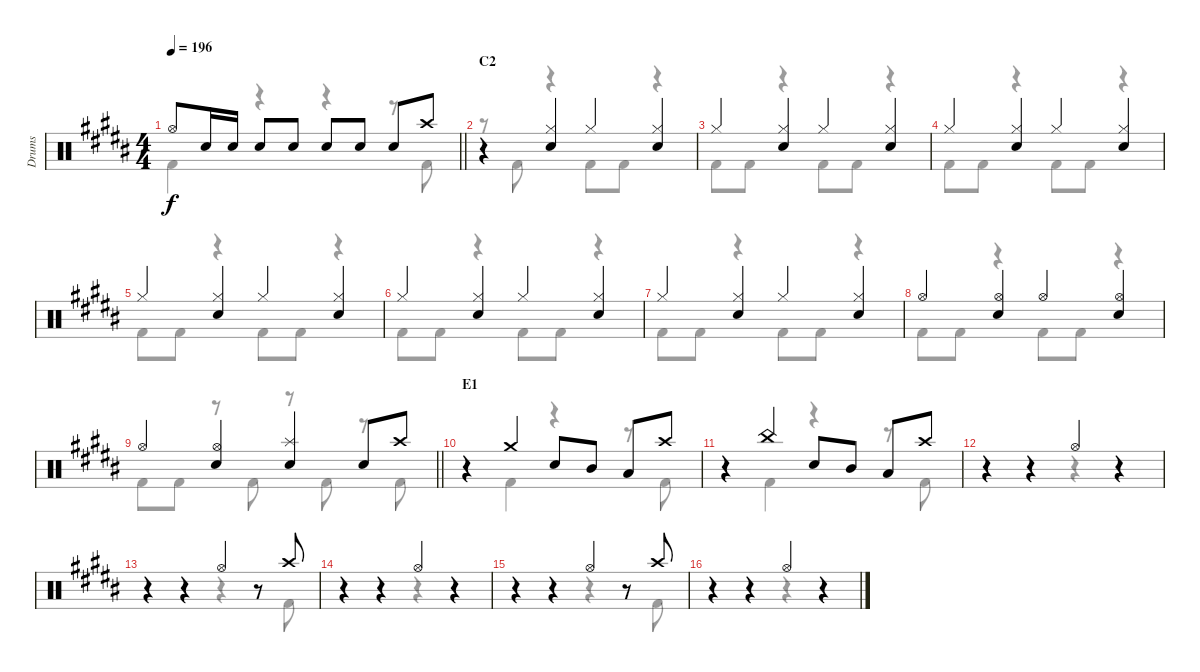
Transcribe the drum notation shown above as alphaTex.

\track ("Drums" "Drums") {instrument percussion}
\staff {score}
\articulation defaults
\voice
\ts (4 4)
\tempo 196
\clef neutral
\barLineRight lightlight
\ks b "Hi-Hat (open)".8{dy f} "Electric Snare (hit)".16 "Electric Snare (hit)".16 "Electric Snare (hit)".8 "Electric Snare (hit)".8 "Electric Snare (hit)".8 "Electric Snare (hit)".8 "Electric Snare (hit)".8 "Crash high (hit)".8
|
\section ("" "C2")
r.4 ("Hi-Hat (closed)" "Electric Snare (hit)").4 "Hi-Hat (closed)".4 ("Hi-Hat (closed)" "Electric Snare (hit)").4 |
"Hi-Hat (closed)".4 ("Hi-Hat (closed)" "Electric Snare (hit)").4 "Hi-Hat (closed)".4 ("Hi-Hat (closed)" "Electric Snare (hit)").4 |
"Hi-Hat (closed)".4 ("Hi-Hat (closed)" "Electric Snare (hit)").4 "Hi-Hat (closed)".4 ("Hi-Hat (closed)" "Electric Snare (hit)").4 |
"Hi-Hat (closed)".4 ("Hi-Hat (closed)" "Electric Snare (hit)").4 "Hi-Hat (closed)".4 ("Hi-Hat (closed)" "Electric Snare (hit)").4 |
"Hi-Hat (closed)".4 ("Hi-Hat (closed)" "Electric Snare (hit)").4 "Hi-Hat (closed)".4 ("Hi-Hat (closed)" "Electric Snare (hit)").4 |
"Hi-Hat (closed)".4 ("Hi-Hat (closed)" "Electric Snare (hit)").4 "Hi-Hat (closed)".4 ("Hi-Hat (closed)" "Electric Snare (hit)").4 |
"Hi-Hat (open)".4 ("Hi-Hat (open)" "Electric Snare (hit)").4 "Hi-Hat (open)".4 ("Hi-Hat (open)" "Electric Snare (hit)").4 |
\barLineRight lightlight "Hi-Hat (open)".4
("Hi-Hat (open)" "Electric Snare (hit)").4 ("Splash (hit)" "Electric Snare (hit)").4 "Electric Snare (hit)".8 "Crash high (hit)".8 |
\section ("" "E1")
r.4 "Crash medium (hit)".4 "Electric Snare (hit)".8 "Mid Tom (hit)".8 "Low Tom (hit)".8 "Crash high (hit)".8 |
r.4 "China (hit)".4 "Electric Snare (hit)".8 "Mid Tom (hit)".8 "Low Tom (hit)".8 "Crash high (hit)".8 |
r.4 r.4 "Hi-Hat (open)".4 r.4 |
r.4 r.4 "Hi-Hat (open)".4 r.8 "Crash high (hit)".8 |
r.4 r.4 "Hi-Hat (open)".4 r.4 |
r.4 r.4 "Hi-Hat (open)".4 r.8 "Crash high (hit)".8 |
r.4 r.4 "Hi-Hat (open)".4 r.4
\voice
\clef neutral
\ottava regular
\simile none
\barLineRight lightlight
\ks b "Kick (hit) 2".4{dy f}
r.4 r.4 r.8 "Kick (hit) 2".8 |
r.8 "Kick (hit) 2".8 r.4 "Kick (hit) 2".8 "Kick (hit) 2".8 r.4 |
"Kick (hit) 2".8 "Kick (hit) 2".8 r.4 "Kick (hit) 2".8 "Kick (hit) 2".8 r.4 |
"Kick (hit) 2".8 "Kick (hit) 2".8 r.4 "Kick (hit) 2".8 "Kick (hit) 2".8 r.4 |
"Kick (hit) 2".8 "Kick (hit) 2".8 r.4 "Kick (hit) 2".8 "Kick (hit) 2".8 r.4 |
"Kick (hit) 2".8 "Kick (hit) 2".8 r.4 "Kick (hit) 2".8 "Kick (hit) 2".8 r.4 |
"Kick (hit) 2".8 "Kick (hit) 2".8 r.4 "Kick (hit) 2".8 "Kick (hit) 2".8 r.4 |
"Kick (hit) 2".8 "Kick (hit) 2".8 r.4 "Kick (hit) 2".8 "Kick (hit) 2".8 r.4 |
\barLineRight lightlight "Kick (hit) 2".8 "Kick (hit) 2".8
r.8 "Kick (hit) 2".8 r.8 "Kick (hit) 2".8 r.8 "Kick (hit) 2".8 |
r.4 "Kick (hit) 2".4 r.4 r.8 "Kick (hit) 2".8 |
r.4 "Kick (hit) 2".4 r.4 r.8 "Kick (hit) 2".8 |
r.4 r.4 r.4 r.4 |
r.4 r.4 r.4 r.8 "Kick (hit) 2".8 |
r.4 r.4 r.4 r.4 |
r.4 r.4 r.4 r.8 "Kick (hit) 2".8 |
r.4 r.4 r.4 r.4
